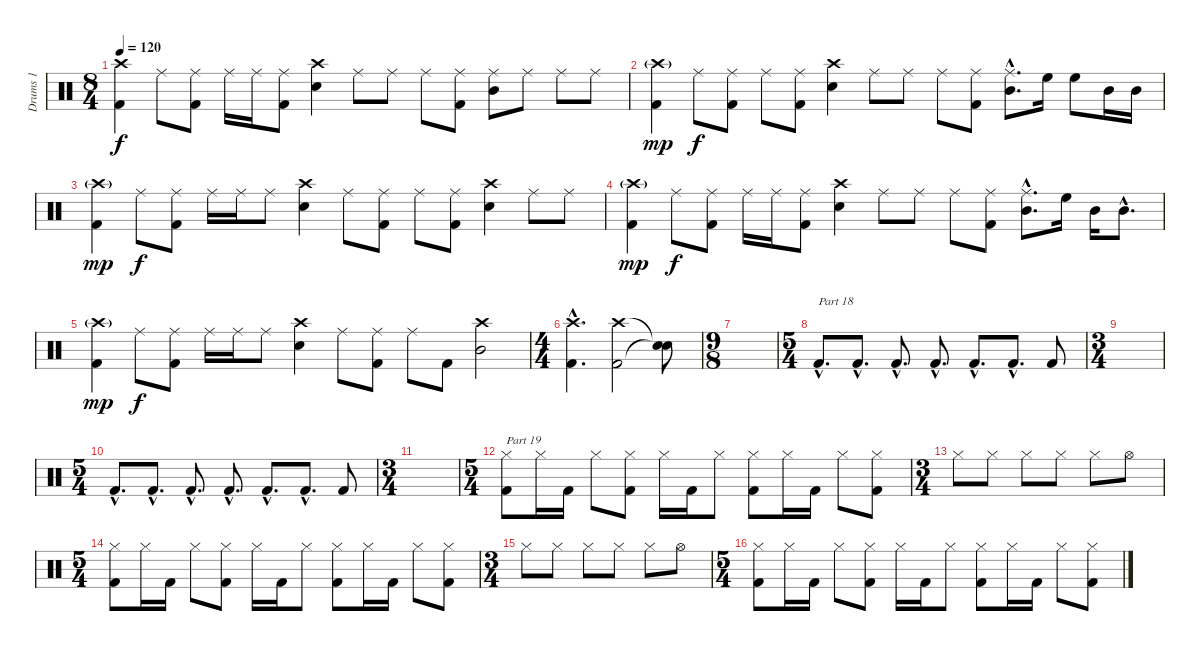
\track ("Drums 1" "Drums 1") {instrument percussion}
\staff {score}
\articulation defaults
\ts (8 4)
\tempo 120
\clef neutral
\ks c
("Crash high (hit)" "Kick (hit) 2").4{dy f} "Ride (middle)".8 ("Ride (middle)" "Kick (hit) 2").8 "Ride (middle)".16 "Ride (middle)".16 ("Ride (middle)" "Kick (hit) 2").8 ("Crash high (hit)" "Snare (hit) 2").4 "Ride (middle)".8 "Ride (middle)".8 "Ride (middle)".8 ("Ride (middle)" "Kick (hit) 2").8 ("Ride (middle)" "Mid Tom (hit)").8 "Ride (middle)".8 "Ride (middle)".8 "Ride (middle)".8 |
("Crash high (hit)"{g} "Kick (hit) 2").4{dy mp} "Ride (middle)".8{dy f} ("Ride (middle)" "Kick (hit) 2").8 "Ride (middle)".8 ("Ride (middle)" "Kick (hit) 2").8 ("Crash high (hit)" "Snare (hit) 2").4 "Ride (middle)".8 "Ride (middle)".8 "Ride (middle)".8 ("Ride (middle)" "Kick (hit) 2").8 ("Ride (middle)"{hac} "Mid Tom (hit)"{hac}).8{d} "High Floor Tom (hit)".16 "High Floor Tom (hit)".8 "Mid Tom (hit)".16 "Mid Tom (hit)".16 |
("Crash high (hit)"{g} "Kick (hit) 2").4{dy mp} "Ride (middle)".8{dy f} ("Ride (middle)" "Kick (hit) 2").8 "Ride (middle)".16 "Ride (middle)".16 "Ride (middle)".8 ("Crash high (hit)" "Snare (hit) 2").4 "Ride (middle)".8 ("Ride (middle)" "Kick (hit) 2").8 "Ride (middle)".8 ("Ride (middle)" "Kick (hit) 2").8 ("Crash high (hit)" "Snare (hit) 2").4 "Ride (middle)".8 "Ride (middle)".8 |
("Crash high (hit)"{g} "Kick (hit) 2").4{dy mp} "Ride (middle)".8{dy f} ("Ride (middle)" "Kick (hit) 2").8 "Ride (middle)".16 "Ride (middle)".16 ("Ride (middle)" "Kick (hit) 2").8 ("Crash high (hit)" "Snare (hit) 2").4 "Ride (middle)".8 "Ride (middle)".8 "Ride (middle)".8 ("Ride (middle)" "Kick (hit) 2").8 ("Ride (middle)"{hac} "Mid Tom (hit)"{hac}).8{d} "High Floor Tom (hit)".16 "Mid Tom (hit)".16 "Mid Tom (hit)"{hac}.8{d} |
("Crash high (hit)"{g} "Kick (hit) 2").4{dy mp} "Ride (middle)".8{dy f} ("Ride (middle)" "Kick (hit) 2").8 "Ride (middle)".16 "Ride (middle)".16 "Ride (middle)".8 ("Crash high (hit)" "Snare (hit) 2").4 "Ride (middle)".8 ("Ride (middle)" "Kick (hit) 2").8 "Ride (middle)".8 "Kick (hit) 2".8 ("Crash high (hit)" "Mid Tom (hit)").2 |
\ts (4 4)
("Crash high (hit)"{hac} "Kick (hit) 2"{hac}).4{d} ("Crash high (hit)" "Kick (hit) 2").2 ("Snare (hit)"{t} "Snare (hit)"{t}).8 |
\ts (9 8)
|
\ts (5 4)
"Kick (hit) 2"{hac}.8{d txt "Part 18" balance 0} "Kick (hit) 2"{hac}.8{d} "Kick (hit) 2"{hac}.8{d} "Kick (hit) 2"{hac}.8{d} "Kick (hit) 2"{hac}.8{d} "Kick (hit) 2"{hac}.8{d} "Kick (hit) 2".8 |
\ts (3 4)
|
\ts (5 4)
"Kick (hit) 2"{hac}.8{d} "Kick (hit) 2"{hac}.8{d} "Kick (hit) 2"{hac}.8{d} "Kick (hit) 2"{hac}.8{d} "Kick (hit) 2"{hac}.8{d} "Kick (hit) 2"{hac}.8{d} "Kick (hit) 2".8 |
\ts (3 4)
|
\ts (5 4)
("Hi-Hat (closed)" "Kick (hit) 2").8{txt "Part 19" balance 8} "Hi-Hat (closed)".16 "Kick (hit) 2".16 "Hi-Hat (closed)".8 ("Hi-Hat (closed)" "Kick (hit) 2").8 "Hi-Hat (closed)".16 "Kick (hit) 2".16 "Hi-Hat (closed)".8 ("Hi-Hat (closed)" "Kick (hit) 2").8 "Hi-Hat (closed)".16 "Kick (hit) 2".16 "Hi-Hat (closed)".8 ("Hi-Hat (closed)" "Kick (hit) 2").8 |
\ts (3 4)
"Hi-Hat (closed)".8 "Hi-Hat (closed)".8 "Hi-Hat (closed)".8 "Hi-Hat (closed)".8 "Hi-Hat (closed)".8 "Hi-Hat (open)".8 |
\ts (5 4)
("Hi-Hat (closed)" "Kick (hit) 2").8 "Hi-Hat (closed)".16 "Kick (hit) 2".16 "Hi-Hat (closed)".8 ("Hi-Hat (closed)" "Kick (hit) 2").8 "Hi-Hat (closed)".16 "Kick (hit) 2".16 "Hi-Hat (closed)".8 ("Hi-Hat (closed)" "Kick (hit) 2").8 "Hi-Hat (closed)".16 "Kick (hit) 2".16 "Hi-Hat (closed)".8 ("Hi-Hat (closed)" "Kick (hit) 2").8 |
\ts (3 4)
"Hi-Hat (closed)".8 "Hi-Hat (closed)".8 "Hi-Hat (closed)".8 "Hi-Hat (closed)".8 "Hi-Hat (closed)".8 "Hi-Hat (open)".8 |
\ts (5 4)
("Hi-Hat (closed)" "Kick (hit) 2").8 "Hi-Hat (closed)".16 "Kick (hit) 2".16 "Hi-Hat (closed)".8 ("Hi-Hat (closed)" "Kick (hit) 2").8 "Hi-Hat (closed)".16 "Kick (hit) 2".16 "Hi-Hat (closed)".8 ("Hi-Hat (closed)" "Kick (hit) 2").8 "Hi-Hat (closed)".16 "Kick (hit) 2".16 "Hi-Hat (closed)".8 ("Hi-Hat (closed)" "Kick (hit) 2").8
